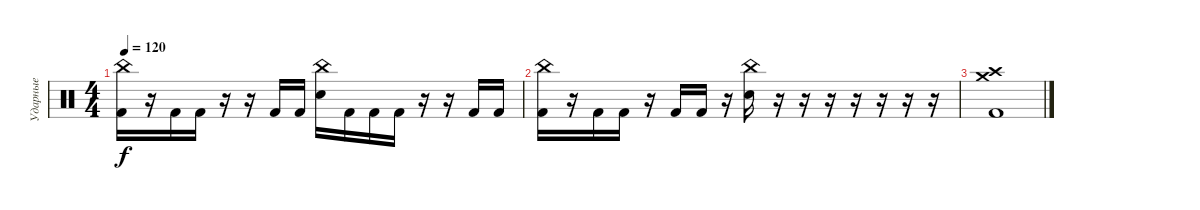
\track ("Ударные" "Ударные") {instrument percussion}
\staff {score}
\articulation defaults
\ts (4 4)
\tempo 120
\clef neutral
\ks c
("China (hit)" "Kick (hit) 2").16{dy f} r.16 "Kick (hit) 2".16 "Kick (hit) 2".16 r.16 r.16 "Kick (hit) 2".16 "Kick (hit) 2".16 ("China (hit)" "Electric Snare (hit)").16 "Kick (hit) 2".16 "Kick (hit) 2".16 "Kick (hit) 2".16 r.16 r.16 "Kick (hit) 2".16 "Kick (hit) 2".16 |
("China (hit)" "Kick (hit) 2").16 r.16 "Kick (hit) 2".16 "Kick (hit) 2".16 r.16 "Kick (hit) 2".16 "Kick (hit) 2".16 r.16 ("China (hit)" "Electric Snare (hit)").16 r.16 r.16 r.16 r.16 r.16 r.16 r.16 |
("Crash medium (hit)" "Crash high (hit)" "Kick (hit) 2").1
